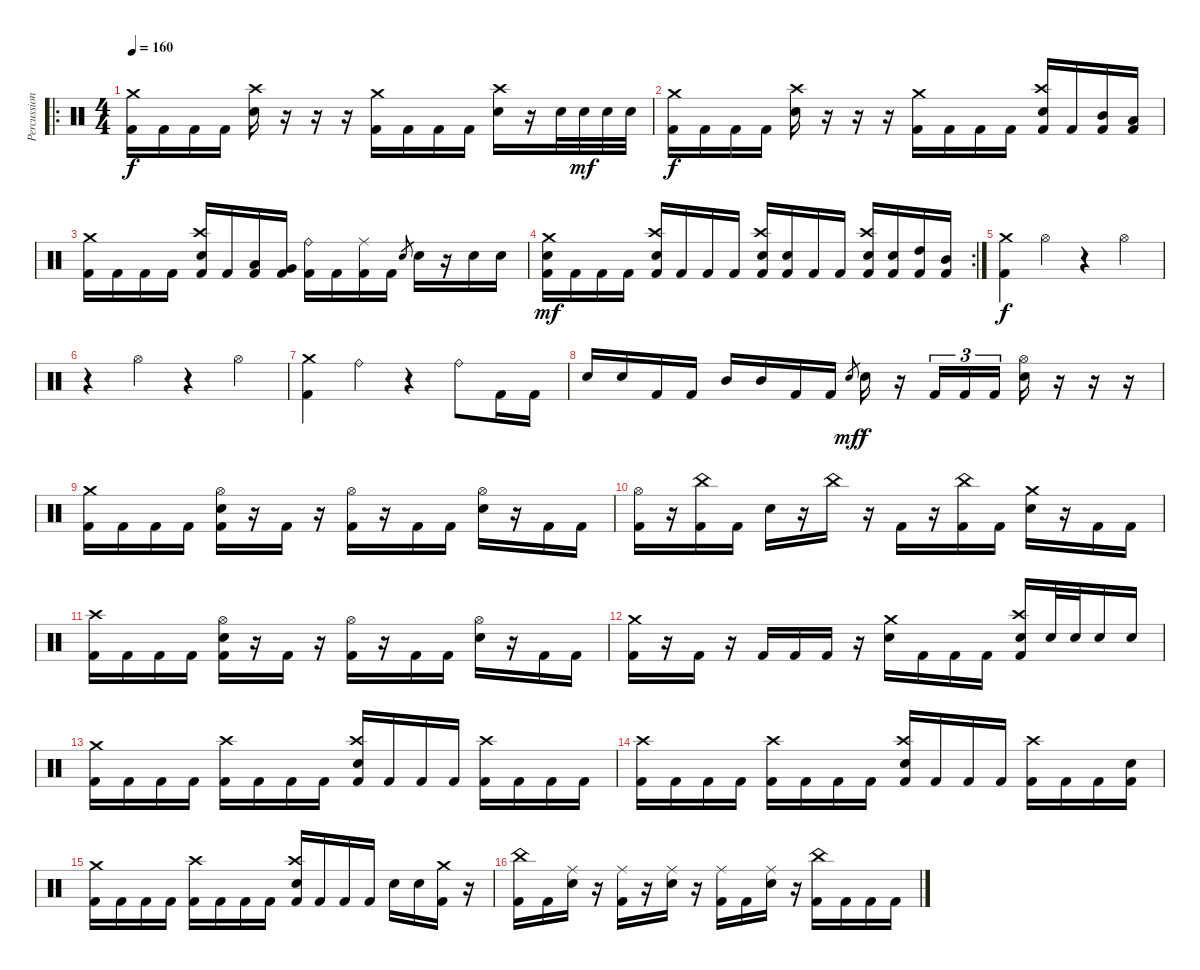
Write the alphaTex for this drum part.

\track ("Percussion" "Percussion") {instrument percussion}
\staff {score}
\articulation defaults
\ro
\ts (4 4)
\tempo 160
\clef neutral
\ks c
("Crash medium (hit)" "Kick (hit) 2").16{dy f} "Kick (hit) 2".16 "Kick (hit) 2".16 "Kick (hit) 2".16 ("Crash high (hit)" "Electric Snare (hit)").16 r.16 r.16 r.16 ("Crash medium (hit)" "Kick (hit) 2").16 "Kick (hit) 2".16 "Kick (hit) 2".16 "Kick (hit) 2".16 ("Crash high (hit)" "Electric Snare (hit)").16 r.16 "Electric Snare (hit)".32 "Electric Snare (hit)".32{dy mf} "Electric Snare (hit)".32 "Electric Snare (hit)".32 |
("Crash medium (hit)" "Kick (hit) 2").16{dy f} "Kick (hit) 2".16 "Kick (hit) 2".16 "Kick (hit) 2".16 ("Crash high (hit)" "Electric Snare (hit)").16 r.16 r.16 r.16 ("Crash medium (hit)" "Kick (hit) 2").16 "Kick (hit) 2".16 "Kick (hit) 2".16 "Kick (hit) 2".16 ("Crash high (hit)" "Electric Snare (hit)" "Kick (hit) 2").16 "Kick (hit) 2".16 ("Mid Tom (hit)" "Kick (hit) 2").16 ("Low Tom (hit)" "Kick (hit) 2").16 |
("Crash medium (hit)" "Kick (hit) 2").16 "Kick (hit) 2".16 "Kick (hit) 2".16 "Kick (hit) 2".16 ("Crash high (hit)" "Electric Snare (hit)" "Kick (hit) 2").16 "Kick (hit) 2".16 ("Low Tom (hit)" "Kick (hit) 2").16 ("Very Low Tom (hit)" "Kick (hit) 2").16 ("Ride (bell)" "Kick (hit) 2").16 "Kick (hit) 2".16 ("Ride (middle)" "Kick (hit) 2").16 "Kick (hit) 2".16 "Electric Snare (hit)".8{gr} "Electric Snare (hit)".16 r.16 "Electric Snare (hit)".16 "Electric Snare (hit)".16 |
\rc 2
("Crash medium (hit)" "Electric Snare (hit)" "Kick (hit) 2").16{dy mf} "Kick (hit) 2".16 "Kick (hit) 2".16 "Kick (hit) 2".16 ("Crash high (hit)" "Electric Snare (hit)" "Kick (hit) 2").16 "Kick (hit) 2".16 "Kick (hit) 2".16 "Kick (hit) 2".16 ("Crash high (hit)" "Electric Snare (hit)" "Kick (hit) 2").16 ("Electric Snare (hit)" "Kick (hit) 2").16 "Kick (hit) 2".16 "Kick (hit) 2".16 ("Crash high (hit)" "Electric Snare (hit)" "Kick (hit) 2").16 ("Electric Snare (hit)" "Kick (hit) 2").16 ("High Tom (hit)" "Kick (hit) 2").16 ("Mid Tom (hit)" "Kick (hit) 2").16 |
("Crash medium (hit)" "Kick (hit) 2").4{dy f} "Hi-Hat (open)".4 r.4 "Hi-Hat (open)".4 |
r.4 "Hi-Hat (open)".4 r.4 "Hi-Hat (open)".4 |
("Crash medium (hit)" "Kick (hit) 2").4 "Ride (bell)".4 r.4 "Ride (bell)".8 "Kick (hit) 2".16 "Kick (hit) 2".16 |
"Electric Snare (hit)".16 "Electric Snare (hit)".16 "Kick (hit) 2".16 "Kick (hit) 2".16 "Mid Tom (hit)".16 "Mid Tom (hit)".16 "Kick (hit) 2".16 "Kick (hit) 2".16 "Electric Snare (hit)".8{gr dy mf} "Electric Snare (hit)".16{dy f} r.16 "Kick (hit) 2".16{tu (3 2)} "Kick (hit) 2".16{tu (3 2)} "Kick (hit) 2".16{tu (3 2)} ("Hi-Hat (open)" "Electric Snare (hit)").16 r.16 r.16 r.16 |
("Crash medium (hit)" "Kick (hit) 2").16 "Kick (hit) 2".16 "Kick (hit) 2".16 "Kick (hit) 2".16 ("Hi-Hat (open)" "Electric Snare (hit)" "Kick (hit) 2").16 r.16 "Kick (hit) 2".16 r.16 ("Hi-Hat (open)" "Kick (hit) 2").16 r.16 "Kick (hit) 2".16 "Kick (hit) 2".16 ("Hi-Hat (open)" "Electric Snare (hit)").16 r.16 "Kick (hit) 2".16 "Kick (hit) 2".16 |
("Hi-Hat (open)" "Kick (hit) 2").16 r.16 ("China (hit)" "Kick (hit) 2").16 "Kick (hit) 2".16 "Electric Snare (hit)".16 r.16 "China (hit)".16 r.16 "Kick (hit) 2".16 r.16 ("China (hit)" "Kick (hit) 2").16 "Kick (hit) 2".16 ("Crash medium (hit)" "Electric Snare (hit)").16 r.16 "Kick (hit) 2".16 "Kick (hit) 2".16 |
("Crash high (hit)" "Kick (hit) 2").16 "Kick (hit) 2".16 "Kick (hit) 2".16 "Kick (hit) 2".16 ("Hi-Hat (open)" "Electric Snare (hit)" "Kick (hit) 2").16 r.16 "Kick (hit) 2".16 r.16 ("Hi-Hat (open)" "Kick (hit) 2").16 r.16 "Kick (hit) 2".16 "Kick (hit) 2".16 ("Hi-Hat (open)" "Electric Snare (hit)").16 r.16 "Kick (hit) 2".16 "Kick (hit) 2".16 |
("Crash medium (hit)" "Kick (hit) 2").16 r.16 "Kick (hit) 2".16 r.16 "Kick (hit) 2".16 "Kick (hit) 2".16 "Kick (hit) 2".16 r.16 ("Crash medium (hit)" "Electric Snare (hit)").16 "Kick (hit) 2".16 "Kick (hit) 2".16 "Kick (hit) 2".16 ("Crash high (hit)" "Electric Snare (hit)" "Kick (hit) 2").16 "Electric Snare (hit)".32 "Electric Snare (hit)".32 "Electric Snare (hit)".16 "Electric Snare (hit)".16 |
("Crash medium (hit)" "Kick (hit) 2").16 "Kick (hit) 2".16 "Kick (hit) 2".16 "Kick (hit) 2".16 ("Crash high (hit)" "Kick (hit) 2").16 "Kick (hit) 2".16 "Kick (hit) 2".16 "Kick (hit) 2".16 ("Crash high (hit)" "Electric Snare (hit)" "Kick (hit) 2").16 "Kick (hit) 2".16 "Kick (hit) 2".16 "Kick (hit) 2".16 ("Crash high (hit)" "Kick (hit) 2").16 "Kick (hit) 2".16 "Kick (hit) 2".16 "Kick (hit) 2".16 |
("Crash high (hit)" "Kick (hit) 2").16 "Kick (hit) 2".16 "Kick (hit) 2".16 "Kick (hit) 2".16 ("Crash high (hit)" "Kick (hit) 2").16 "Kick (hit) 2".16 "Kick (hit) 2".16 "Kick (hit) 2".16 ("Crash high (hit)" "Electric Snare (hit)" "Kick (hit) 2").16 "Kick (hit) 2".16 "Kick (hit) 2".16 "Kick (hit) 2".16 ("Crash high (hit)" "Kick (hit) 2").16 "Kick (hit) 2".16 "Kick (hit) 2".16 ("Electric Snare (hit)" "Kick (hit) 2").16 |
("Crash medium (hit)" "Kick (hit) 2").16 "Kick (hit) 2".16 "Kick (hit) 2".16 "Kick (hit) 2".16 ("Crash high (hit)" "Kick (hit) 2").16 "Kick (hit) 2".16 "Kick (hit) 2".16 "Kick (hit) 2".16 ("Crash high (hit)" "Electric Snare (hit)" "Kick (hit) 2").16 "Kick (hit) 2".16 "Kick (hit) 2".16 "Kick (hit) 2".16 "Electric Snare (hit)".16 "Electric Snare (hit)".16 ("Crash medium (hit)" "Kick (hit) 2").16 r.16 |
("China (hit)" "Kick (hit) 2").16 "Kick (hit) 2".16 ("Ride (middle)" "Electric Snare (hit)").16 r.16 ("Ride (middle)" "Kick (hit) 2").16 r.16 ("Ride (middle)" "Electric Snare (hit)").16 r.16 ("Ride (middle)" "Kick (hit) 2").16 "Kick (hit) 2".16 ("Ride (middle)" "Electric Snare (hit)").16 r.16 ("China (hit)" "Kick (hit) 2").16 "Kick (hit) 2".16 "Kick (hit) 2".16 "Kick (hit) 2".16
